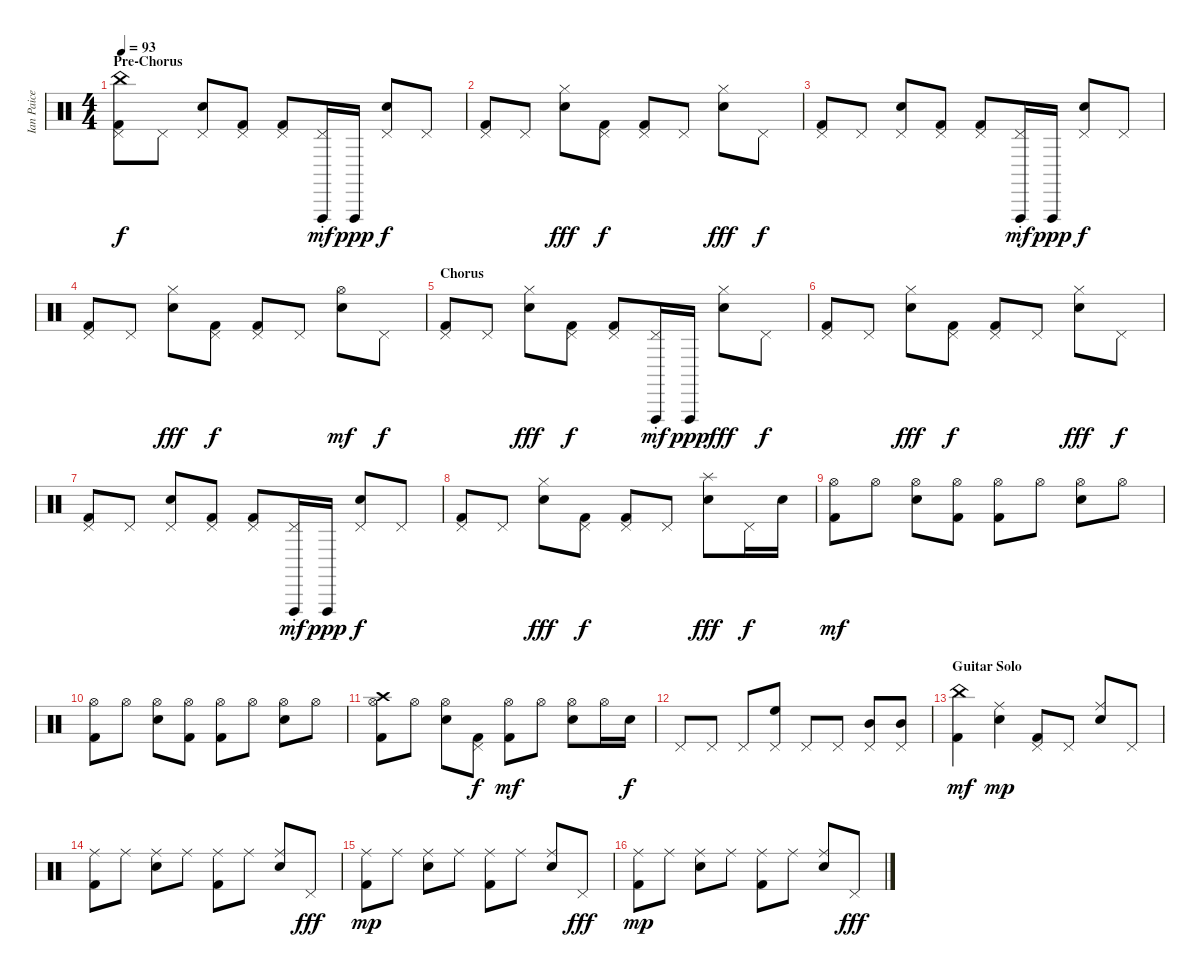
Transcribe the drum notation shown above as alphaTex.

\track ("Ian Paice (drums)" "Ian Paice ") {instrument percussion}
\staff {score}
\articulation defaults
\ts (4 4)
\section ("" "Pre-Chorus")
\tempo 93
\clef neutral
\ks c
("China (hit)" "Pedal Hi-Hat (hit)" "Kick (hit) 2").8{dy f} "Pedal Hi-Hat (hit)".8 ("Pedal Hi-Hat (hit)" "Electric Snare (hit)").8 ("Pedal Hi-Hat (hit)" "Kick (hit) 2").8 ("Pedal Hi-Hat (hit)" "Kick (hit) 2").8 ("Pedal Hi-Hat (hit)" "Vibraslap (hit)"{st}).16{dy mf} "Vibraslap (hit)".16{dy ppp} ("Pedal Hi-Hat (hit)" "Electric Snare (hit)").8{dy f} "Pedal Hi-Hat (hit)".8 |
("Pedal Hi-Hat (hit)" "Kick (hit) 2").8 "Pedal Hi-Hat (hit)".8 ("Hi-Hat (closed)" "Electric Snare (hit)").8{dy fff} ("Pedal Hi-Hat (hit)" "Kick (hit) 2").8{dy f} ("Pedal Hi-Hat (hit)" "Kick (hit) 2").8 "Pedal Hi-Hat (hit)".8 ("Hi-Hat (closed)" "Electric Snare (hit)").8{dy fff} "Pedal Hi-Hat (hit)".8{dy f} |
("Pedal Hi-Hat (hit)" "Kick (hit) 2").8 "Pedal Hi-Hat (hit)".8 ("Pedal Hi-Hat (hit)" "Electric Snare (hit)").8 ("Pedal Hi-Hat (hit)" "Kick (hit) 2").8 ("Pedal Hi-Hat (hit)" "Kick (hit) 2").8 ("Pedal Hi-Hat (hit)" "Vibraslap (hit)"{st}).16{dy mf} "Vibraslap (hit)".16{dy ppp} ("Pedal Hi-Hat (hit)" "Electric Snare (hit)").8{dy f} "Pedal Hi-Hat (hit)".8 |
("Pedal Hi-Hat (hit)" "Kick (hit) 2").8 "Pedal Hi-Hat (hit)".8 ("Hi-Hat (closed)" "Electric Snare (hit)").8{dy fff} ("Pedal Hi-Hat (hit)" "Kick (hit) 2").8{dy f} ("Pedal Hi-Hat (hit)" "Kick (hit) 2").8 "Pedal Hi-Hat (hit)".8 ("Hi-Hat (open)" "Electric Snare (hit)").8{dy mf} "Pedal Hi-Hat (hit)".8{dy f} |
\section ("" "Chorus")
("Pedal Hi-Hat (hit)" "Kick (hit) 2").8 "Pedal Hi-Hat (hit)".8 ("Hi-Hat (closed)" "Electric Snare (hit)").8{dy fff} ("Pedal Hi-Hat (hit)" "Kick (hit) 2").8{dy f} ("Pedal Hi-Hat (hit)" "Kick (hit) 2").8 ("Pedal Hi-Hat (hit)" "Vibraslap (hit)"{st}).16{dy mf} "Vibraslap (hit)".16{dy ppp} ("Hi-Hat (closed)" "Electric Snare (hit)").8{dy fff} "Pedal Hi-Hat (hit)".8{dy f} |
("Pedal Hi-Hat (hit)" "Kick (hit) 2").8 "Pedal Hi-Hat (hit)".8 ("Hi-Hat (closed)" "Electric Snare (hit)").8{dy fff} ("Pedal Hi-Hat (hit)" "Kick (hit) 2").8{dy f} ("Pedal Hi-Hat (hit)" "Kick (hit) 2").8 "Pedal Hi-Hat (hit)".8 ("Hi-Hat (closed)" "Electric Snare (hit)").8{dy fff} "Pedal Hi-Hat (hit)".8{dy f} |
("Pedal Hi-Hat (hit)" "Kick (hit) 2").8 "Pedal Hi-Hat (hit)".8 ("Pedal Hi-Hat (hit)" "Electric Snare (hit)").8 ("Pedal Hi-Hat (hit)" "Kick (hit) 2").8 ("Pedal Hi-Hat (hit)" "Kick (hit) 2").8 ("Pedal Hi-Hat (hit)" "Vibraslap (hit)"{st}).16{dy mf} "Vibraslap (hit)".16{dy ppp} ("Pedal Hi-Hat (hit)" "Electric Snare (hit)").8{dy f} "Pedal Hi-Hat (hit)".8 |
("Pedal Hi-Hat (hit)" "Kick (hit) 2").8 "Pedal Hi-Hat (hit)".8 ("Hi-Hat (closed)" "Electric Snare (hit)").8{dy fff} ("Pedal Hi-Hat (hit)" "Kick (hit) 2").8{dy f} ("Pedal Hi-Hat (hit)" "Kick (hit) 2").8 "Pedal Hi-Hat (hit)".8 ("Splash (hit)" "Electric Snare (hit)").8{dy fff} "Pedal Hi-Hat (hit)".16{dy f} "Electric Snare (hit)".16 |
("Hi-Hat (open)" "Kick (hit) 2").8{dy mf} "Hi-Hat (open)".8 ("Hi-Hat (open)" "Electric Snare (hit)").8 ("Hi-Hat (open)" "Kick (hit) 2").8 ("Hi-Hat (open)" "Kick (hit) 2").8 "Hi-Hat (open)".8 ("Hi-Hat (open)" "Electric Snare (hit)").8 "Hi-Hat (open)".8 |
("Hi-Hat (open)" "Kick (hit) 2").8 "Hi-Hat (open)".8 ("Hi-Hat (open)" "Electric Snare (hit)").8 ("Hi-Hat (open)" "Kick (hit) 2").8 ("Hi-Hat (open)" "Kick (hit) 2").8 "Hi-Hat (open)".8 ("Hi-Hat (open)" "Electric Snare (hit)").8 "Hi-Hat (open)".8 |
("Crash high (hit)" "Hi-Hat (open)" "Kick (hit) 2").8 "Hi-Hat (open)".8 ("Hi-Hat (open)" "Electric Snare (hit)").8 ("Pedal Hi-Hat (hit)" "Kick (hit) 2").8{dy f} ("Hi-Hat (open)" "Kick (hit) 2").8{dy mf} "Hi-Hat (open)".8 ("Hi-Hat (open)" "Electric Snare (hit)").8 "Hi-Hat (open)".16 "Electric Snare (hit)".16{dy f} |
"Pedal Hi-Hat (hit)".8 "Pedal Hi-Hat (hit)".8 "Pedal Hi-Hat (hit)".8 ("Pedal Hi-Hat (hit)" "High Floor Tom (hit)").8 "Pedal Hi-Hat (hit)".8 "Pedal Hi-Hat (hit)".8 ("Pedal Hi-Hat (hit)" "Mid Tom (hit)").8 ("Pedal Hi-Hat (hit)" "Mid Tom (hit)").8 |
\section ("" "Guitar Solo")
("China (hit)" "Kick (hit) 2").4{dy mf} ("Ride (middle)" "Electric Snare (hit)").4{dy mp} ("Pedal Hi-Hat (hit)" "Kick (hit) 2").8 "Pedal Hi-Hat (hit)".8 ("Ride (middle)" "Electric Snare (hit)").8 "Pedal Hi-Hat (hit)".8 |
("Ride (middle)" "Kick (hit) 2").8 "Ride (middle)".8 ("Ride (middle)" "Electric Snare (hit)").8 "Ride (middle)".8 ("Ride (middle)" "Kick (hit) 2").8 "Ride (middle)".8 ("Ride (middle)" "Electric Snare (hit)").8 "Pedal Hi-Hat (hit)".8{dy fff} |
("Ride (middle)" "Kick (hit) 2").8{dy mp} "Ride (middle)".8 ("Ride (middle)" "Electric Snare (hit)").8 "Ride (middle)".8 ("Ride (middle)" "Kick (hit) 2").8 "Ride (middle)".8 ("Ride (middle)" "Electric Snare (hit)").8 "Pedal Hi-Hat (hit)".8{dy fff} |
("Ride (middle)" "Kick (hit) 2").8{dy mp} "Ride (middle)".8 ("Ride (middle)" "Electric Snare (hit)").8 "Ride (middle)".8 ("Ride (middle)" "Kick (hit) 2").8 "Ride (middle)".8 ("Ride (middle)" "Electric Snare (hit)").8 "Pedal Hi-Hat (hit)".8{dy fff}
